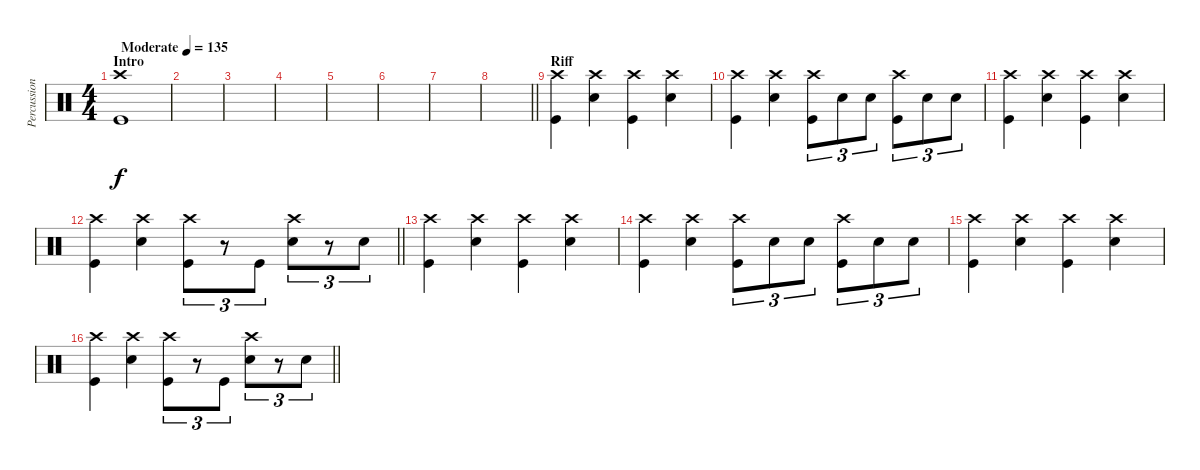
\track ("Percussion" "Percussion") {instrument percussion}
\staff {score}
\articulation defaults
\ts (4 4)
\section ("" "Intro")
\tempo (135 "Moderate")
\clef neutral
\ks c
("Crash high (hit)" "Kick (hit)").1{dy f} |
|
|
|
|
|
|
\barLineRight lightlight
|
\section ("" "Riff")
("Crash high (hit)" "Kick (hit)").4 ("Crash high (hit)" "Snare (hit) 2").4 ("Crash high (hit)" "Kick (hit)").4 ("Crash high (hit)" "Snare (hit) 2").4 |
("Crash high (hit)" "Kick (hit)").4 ("Crash high (hit)" "Snare (hit) 2").4 ("Crash high (hit)" "Kick (hit)").8{tu (3 2)} "Snare (hit) 2".8{tu (3 2)} "Snare (hit) 2".8{tu (3 2)} ("Crash high (hit)" "Kick (hit)").8{tu (3 2)} "Snare (hit) 2".8{tu (3 2)} "Snare (hit) 2".8{tu (3 2)} |
("Crash high (hit)" "Kick (hit)").4 ("Crash high (hit)" "Snare (hit) 2").4 ("Crash high (hit)" "Kick (hit)").4 ("Crash high (hit)" "Snare (hit) 2").4 |
\barLineRight lightlight
("Crash high (hit)" "Kick (hit)").4 ("Crash high (hit)" "Snare (hit) 2").4 ("Crash high (hit)" "Kick (hit)").8{tu (3 2)} r.8{tu (3 2)} "Kick (hit)".8{tu (3 2)} ("Crash high (hit)" "Snare (hit) 2").8{tu (3 2)} r.8{tu (3 2)} "Snare (hit) 2".8{tu (3 2)} |
\section ("" "")
("Crash high (hit)" "Kick (hit)").4 ("Crash high (hit)" "Snare (hit) 2").4 ("Crash high (hit)" "Kick (hit)").4 ("Crash high (hit)" "Snare (hit) 2").4 |
("Crash high (hit)" "Kick (hit)").4 ("Crash high (hit)" "Snare (hit) 2").4 ("Crash high (hit)" "Kick (hit)").8{tu (3 2)} "Snare (hit) 2".8{tu (3 2)} "Snare (hit) 2".8{tu (3 2)} ("Crash high (hit)" "Kick (hit)").8{tu (3 2)} "Snare (hit) 2".8{tu (3 2)} "Snare (hit) 2".8{tu (3 2)} |
("Crash high (hit)" "Kick (hit)").4 ("Crash high (hit)" "Snare (hit) 2").4 ("Crash high (hit)" "Kick (hit)").4 ("Crash high (hit)" "Snare (hit) 2").4 |
\barLineRight lightlight
("Crash high (hit)" "Kick (hit)").4 ("Crash high (hit)" "Snare (hit) 2").4 ("Crash high (hit)" "Kick (hit)").8{tu (3 2)} r.8{tu (3 2)} "Kick (hit)".8{tu (3 2)} ("Crash high (hit)" "Snare (hit) 2").8{tu (3 2)} r.8{tu (3 2)} "Snare (hit) 2".8{tu (3 2)}
